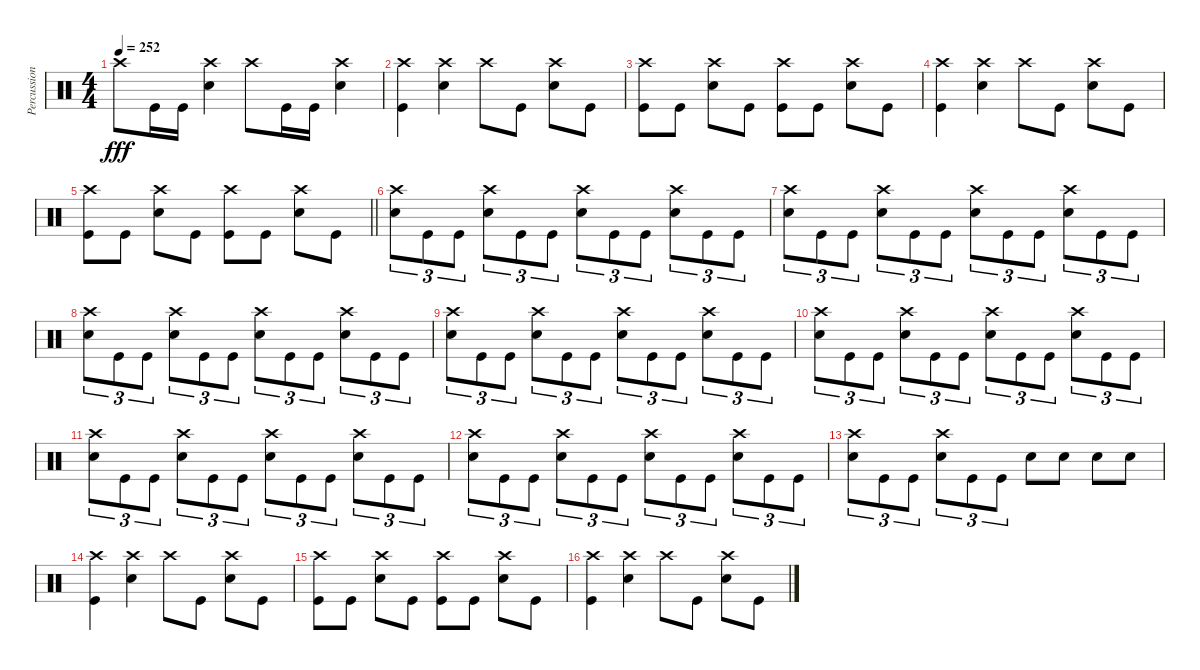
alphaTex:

\track ("Percussion" "Percussion") {instrument percussion}
\staff {score}
\articulation defaults
\ts (4 4)
\tempo 252
\clef neutral
\ks c "Crash high (hit)".8{dy fff} "Kick (hit)".16 "Kick (hit)".16
("Crash high (hit)" "Snare (hit) 2").4 "Crash high (hit)".8 "Kick (hit)".16 "Kick (hit)".16 ("Crash high (hit)" "Snare (hit) 2").4 |
("Crash high (hit)" "Kick (hit)").4 ("Crash high (hit)" "Snare (hit) 2").4 "Crash high (hit)".8 "Kick (hit)".8 ("Crash high (hit)" "Snare (hit) 2").8 "Kick (hit)".8 |
("Crash high (hit)" "Kick (hit)").8 "Kick (hit)".8 ("Crash high (hit)" "Snare (hit) 2").8 "Kick (hit)".8 ("Crash high (hit)" "Kick (hit)").8 "Kick (hit)".8 ("Crash high (hit)" "Snare (hit) 2").8 "Kick (hit)".8 |
("Crash high (hit)" "Kick (hit)").4 ("Crash high (hit)" "Snare (hit) 2").4 "Crash high (hit)".8 "Kick (hit)".8 ("Crash high (hit)" "Snare (hit) 2").8 "Kick (hit)".8 |
\barLineRight lightlight
("Crash high (hit)" "Kick (hit)").8 "Kick (hit)".8 ("Crash high (hit)" "Snare (hit) 2").8 "Kick (hit)".8 ("Crash high (hit)" "Kick (hit)").8 "Kick (hit)".8 ("Crash high (hit)" "Snare (hit) 2").8 "Kick (hit)".8 |
("Crash high (hit)" "Snare (hit) 2").8{tu (3 2)} "Kick (hit)".8{tu (3 2)} "Kick (hit)".8{tu (3 2)} ("Crash high (hit)" "Snare (hit) 2").8{tu (3 2)} "Kick (hit)".8{tu (3 2)} "Kick (hit)".8{tu (3 2)} ("Crash high (hit)" "Snare (hit) 2").8{tu (3 2)} "Kick (hit)".8{tu (3 2)} "Kick (hit)".8{tu (3 2)} ("Crash high (hit)" "Snare (hit) 2").8{tu (3 2)} "Kick (hit)".8{tu (3 2)} "Kick (hit)".8{tu (3 2)} |
("Crash high (hit)" "Snare (hit) 2").8{tu (3 2)} "Kick (hit)".8{tu (3 2)} "Kick (hit)".8{tu (3 2)} ("Crash high (hit)" "Snare (hit) 2").8{tu (3 2)} "Kick (hit)".8{tu (3 2)} "Kick (hit)".8{tu (3 2)} ("Crash high (hit)" "Snare (hit) 2").8{tu (3 2)} "Kick (hit)".8{tu (3 2)} "Kick (hit)".8{tu (3 2)} ("Crash high (hit)" "Snare (hit) 2").8{tu (3 2)} "Kick (hit)".8{tu (3 2)} "Kick (hit)".8{tu (3 2)} |
("Crash high (hit)" "Snare (hit) 2").8{tu (3 2)} "Kick (hit)".8{tu (3 2)} "Kick (hit)".8{tu (3 2)} ("Crash high (hit)" "Snare (hit) 2").8{tu (3 2)} "Kick (hit)".8{tu (3 2)} "Kick (hit)".8{tu (3 2)} ("Crash high (hit)" "Snare (hit) 2").8{tu (3 2)} "Kick (hit)".8{tu (3 2)} "Kick (hit)".8{tu (3 2)} ("Crash high (hit)" "Snare (hit) 2").8{tu (3 2)} "Kick (hit)".8{tu (3 2)} "Kick (hit)".8{tu (3 2)} |
("Crash high (hit)" "Snare (hit) 2").8{tu (3 2)} "Kick (hit)".8{tu (3 2)} "Kick (hit)".8{tu (3 2)} ("Crash high (hit)" "Snare (hit) 2").8{tu (3 2)} "Kick (hit)".8{tu (3 2)} "Kick (hit)".8{tu (3 2)} ("Crash high (hit)" "Snare (hit) 2").8{tu (3 2)} "Kick (hit)".8{tu (3 2)} "Kick (hit)".8{tu (3 2)} ("Crash high (hit)" "Snare (hit) 2").8{tu (3 2)} "Kick (hit)".8{tu (3 2)} "Kick (hit)".8{tu (3 2)} |
("Crash high (hit)" "Snare (hit) 2").8{tu (3 2)} "Kick (hit)".8{tu (3 2)} "Kick (hit)".8{tu (3 2)} ("Crash high (hit)" "Snare (hit) 2").8{tu (3 2)} "Kick (hit)".8{tu (3 2)} "Kick (hit)".8{tu (3 2)} ("Crash high (hit)" "Snare (hit) 2").8{tu (3 2)} "Kick (hit)".8{tu (3 2)} "Kick (hit)".8{tu (3 2)} ("Crash high (hit)" "Snare (hit) 2").8{tu (3 2)} "Kick (hit)".8{tu (3 2)} "Kick (hit)".8{tu (3 2)} |
("Crash high (hit)" "Snare (hit) 2").8{tu (3 2)} "Kick (hit)".8{tu (3 2)} "Kick (hit)".8{tu (3 2)} ("Crash high (hit)" "Snare (hit) 2").8{tu (3 2)} "Kick (hit)".8{tu (3 2)} "Kick (hit)".8{tu (3 2)} ("Crash high (hit)" "Snare (hit) 2").8{tu (3 2)} "Kick (hit)".8{tu (3 2)} "Kick (hit)".8{tu (3 2)} ("Crash high (hit)" "Snare (hit) 2").8{tu (3 2)} "Kick (hit)".8{tu (3 2)} "Kick (hit)".8{tu (3 2)} |
("Crash high (hit)" "Snare (hit) 2").8{tu (3 2)} "Kick (hit)".8{tu (3 2)} "Kick (hit)".8{tu (3 2)} ("Crash high (hit)" "Snare (hit) 2").8{tu (3 2)} "Kick (hit)".8{tu (3 2)} "Kick (hit)".8{tu (3 2)} ("Crash high (hit)" "Snare (hit) 2").8{tu (3 2)} "Kick (hit)".8{tu (3 2)} "Kick (hit)".8{tu (3 2)} ("Crash high (hit)" "Snare (hit) 2").8{tu (3 2)} "Kick (hit)".8{tu (3 2)} "Kick (hit)".8{tu (3 2)} |
("Crash high (hit)" "Snare (hit) 2").8{tu (3 2)} "Kick (hit)".8{tu (3 2)} "Kick (hit)".8{tu (3 2)} ("Crash high (hit)" "Snare (hit) 2").8{tu (3 2)} "Kick (hit)".8{tu (3 2)} "Kick (hit)".8{tu (3 2)} "Snare (hit) 2".8 "Snare (hit) 2".8 "Snare (hit) 2".8 "Snare (hit) 2".8 |
("Crash high (hit)" "Kick (hit)").4 ("Crash high (hit)" "Snare (hit) 2").4 "Crash high (hit)".8 "Kick (hit)".8 ("Crash high (hit)" "Snare (hit) 2").8 "Kick (hit)".8 |
("Crash high (hit)" "Kick (hit)").8 "Kick (hit)".8 ("Crash high (hit)" "Snare (hit) 2").8 "Kick (hit)".8 ("Crash high (hit)" "Kick (hit)").8 "Kick (hit)".8 ("Crash high (hit)" "Snare (hit) 2").8 "Kick (hit)".8 |
("Crash high (hit)" "Kick (hit)").4 ("Crash high (hit)" "Snare (hit) 2").4 "Crash high (hit)".8 "Kick (hit)".8 ("Crash high (hit)" "Snare (hit) 2").8 "Kick (hit)".8
